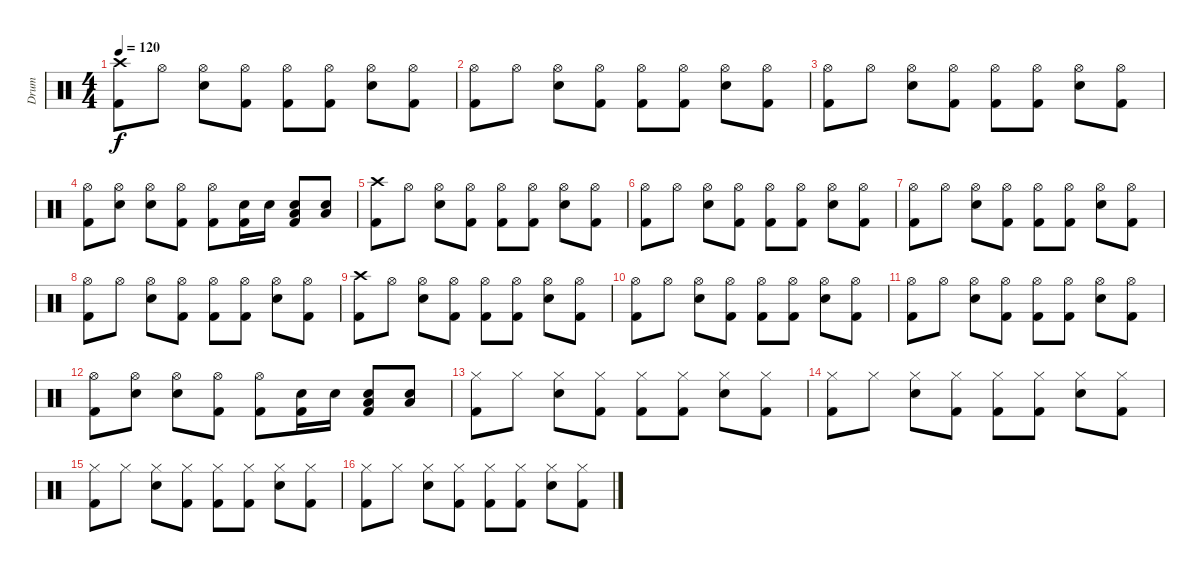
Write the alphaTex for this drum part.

\track ("Drum" "Drum") {instrument percussion}
\staff {score}
\articulation defaults
\ts (4 4)
\tempo 120
\clef neutral
\ks c
("Crash high (hit)" "Kick (hit) 2").8{dy f} "Hi-Hat (open)".8 ("Hi-Hat (open)" "Snare (hit) 2").8 ("Hi-Hat (open)" "Kick (hit) 2").8 ("Hi-Hat (open)" "Kick (hit) 2").8 ("Hi-Hat (open)" "Kick (hit) 2").8 ("Hi-Hat (open)" "Snare (hit) 2").8 ("Hi-Hat (open)" "Kick (hit) 2").8 |
("Hi-Hat (open)" "Kick (hit) 2").8 "Hi-Hat (open)".8 ("Hi-Hat (open)" "Snare (hit) 2").8 ("Hi-Hat (open)" "Kick (hit) 2").8 ("Hi-Hat (open)" "Kick (hit) 2").8 ("Hi-Hat (open)" "Kick (hit) 2").8 ("Hi-Hat (open)" "Snare (hit) 2").8 ("Hi-Hat (open)" "Kick (hit) 2").8 |
("Hi-Hat (open)" "Kick (hit) 2").8 "Hi-Hat (open)".8 ("Hi-Hat (open)" "Snare (hit) 2").8 ("Hi-Hat (open)" "Kick (hit) 2").8 ("Hi-Hat (open)" "Kick (hit) 2").8 ("Hi-Hat (open)" "Kick (hit) 2").8 ("Hi-Hat (open)" "Snare (hit) 2").8 ("Hi-Hat (open)" "Kick (hit) 2").8 |
("Hi-Hat (open)" "Kick (hit) 2").8 ("Hi-Hat (open)" "Snare (hit) 2").8 ("Hi-Hat (open)" "Snare (hit) 2").8 ("Hi-Hat (open)" "Kick (hit) 2").8 ("Hi-Hat (open)" "Kick (hit) 2").8 ("Snare (hit) 2" "Kick (hit) 2").16 "Snare (hit) 2".16 ("Low Tom (hit)" "Snare (hit) 2" "Kick (hit) 2").8 ("Low Floor Tom (hit)" "Snare (hit) 2").8 |
("Crash high (hit)" "Kick (hit) 2").8 "Hi-Hat (open)".8 ("Hi-Hat (open)" "Snare (hit) 2").8 ("Hi-Hat (open)" "Kick (hit) 2").8 ("Hi-Hat (open)" "Kick (hit) 2").8 ("Hi-Hat (open)" "Kick (hit) 2").8 ("Hi-Hat (open)" "Snare (hit) 2").8 ("Hi-Hat (open)" "Kick (hit) 2").8 |
("Hi-Hat (open)" "Kick (hit) 2").8 "Hi-Hat (open)".8 ("Hi-Hat (open)" "Snare (hit) 2").8 ("Hi-Hat (open)" "Kick (hit) 2").8 ("Hi-Hat (open)" "Kick (hit) 2").8 ("Hi-Hat (open)" "Kick (hit) 2").8 ("Hi-Hat (open)" "Snare (hit) 2").8 ("Hi-Hat (open)" "Kick (hit) 2").8 |
("Hi-Hat (open)" "Kick (hit) 2").8 "Hi-Hat (open)".8 ("Hi-Hat (open)" "Snare (hit) 2").8 ("Hi-Hat (open)" "Kick (hit) 2").8 ("Hi-Hat (open)" "Kick (hit) 2").8 ("Hi-Hat (open)" "Kick (hit) 2").8 ("Hi-Hat (open)" "Snare (hit) 2").8 ("Hi-Hat (open)" "Kick (hit) 2").8 |
("Hi-Hat (open)" "Kick (hit) 2").8 "Hi-Hat (open)".8 ("Hi-Hat (open)" "Snare (hit) 2").8 ("Hi-Hat (open)" "Kick (hit) 2").8 ("Hi-Hat (open)" "Kick (hit) 2").8 ("Hi-Hat (open)" "Kick (hit) 2").8 ("Hi-Hat (open)" "Snare (hit) 2").8 ("Hi-Hat (open)" "Kick (hit) 2").8 |
("Crash high (hit)" "Kick (hit) 2").8 "Hi-Hat (open)".8 ("Hi-Hat (open)" "Snare (hit) 2").8 ("Hi-Hat (open)" "Kick (hit) 2").8 ("Hi-Hat (open)" "Kick (hit) 2").8 ("Hi-Hat (open)" "Kick (hit) 2").8 ("Hi-Hat (open)" "Snare (hit) 2").8 ("Hi-Hat (open)" "Kick (hit) 2").8 |
("Hi-Hat (open)" "Kick (hit) 2").8 "Hi-Hat (open)".8 ("Hi-Hat (open)" "Snare (hit) 2").8 ("Hi-Hat (open)" "Kick (hit) 2").8 ("Hi-Hat (open)" "Kick (hit) 2").8 ("Hi-Hat (open)" "Kick (hit) 2").8 ("Hi-Hat (open)" "Snare (hit) 2").8 ("Hi-Hat (open)" "Kick (hit) 2").8 |
("Hi-Hat (open)" "Kick (hit) 2").8 "Hi-Hat (open)".8 ("Hi-Hat (open)" "Snare (hit) 2").8 ("Hi-Hat (open)" "Kick (hit) 2").8 ("Hi-Hat (open)" "Kick (hit) 2").8 ("Hi-Hat (open)" "Kick (hit) 2").8 ("Hi-Hat (open)" "Snare (hit) 2").8 ("Hi-Hat (open)" "Kick (hit) 2").8 |
("Hi-Hat (open)" "Kick (hit) 2").8 ("Hi-Hat (open)" "Snare (hit) 2").8 ("Hi-Hat (open)" "Snare (hit) 2").8 ("Hi-Hat (open)" "Kick (hit) 2").8 ("Hi-Hat (open)" "Kick (hit) 2").8 ("Snare (hit) 2" "Kick (hit) 2").16 "Snare (hit) 2".16 ("Low Tom (hit)" "Snare (hit) 2" "Kick (hit) 2").8 ("Low Floor Tom (hit)" "Snare (hit) 2").8 |
("Hi-Hat (closed)" "Kick (hit) 2").8 "Hi-Hat (closed)".8 ("Hi-Hat (closed)" "Snare (hit) 2").8 ("Hi-Hat (closed)" "Kick (hit) 2").8 ("Hi-Hat (closed)" "Kick (hit) 2").8 ("Hi-Hat (closed)" "Kick (hit) 2").8 ("Hi-Hat (closed)" "Snare (hit) 2").8 ("Hi-Hat (closed)" "Kick (hit) 2").8 |
("Hi-Hat (closed)" "Kick (hit) 2").8 "Hi-Hat (closed)".8 ("Hi-Hat (closed)" "Snare (hit) 2").8 ("Hi-Hat (closed)" "Kick (hit) 2").8 ("Hi-Hat (closed)" "Kick (hit) 2").8 ("Hi-Hat (closed)" "Kick (hit) 2").8 ("Hi-Hat (closed)" "Snare (hit) 2").8 ("Hi-Hat (closed)" "Kick (hit) 2").8 |
("Hi-Hat (closed)" "Kick (hit) 2").8 "Hi-Hat (closed)".8 ("Hi-Hat (closed)" "Snare (hit) 2").8 ("Hi-Hat (closed)" "Kick (hit) 2").8 ("Hi-Hat (closed)" "Kick (hit) 2").8 ("Hi-Hat (closed)" "Kick (hit) 2").8 ("Hi-Hat (closed)" "Snare (hit) 2").8 ("Hi-Hat (closed)" "Kick (hit) 2").8 |
("Hi-Hat (closed)" "Kick (hit) 2").8 "Hi-Hat (closed)".8 ("Hi-Hat (closed)" "Snare (hit) 2").8 ("Hi-Hat (closed)" "Kick (hit) 2").8 ("Hi-Hat (closed)" "Kick (hit) 2").8 ("Hi-Hat (closed)" "Kick (hit) 2").8 ("Hi-Hat (closed)" "Snare (hit) 2").8 ("Hi-Hat (closed)" "Kick (hit) 2").8
